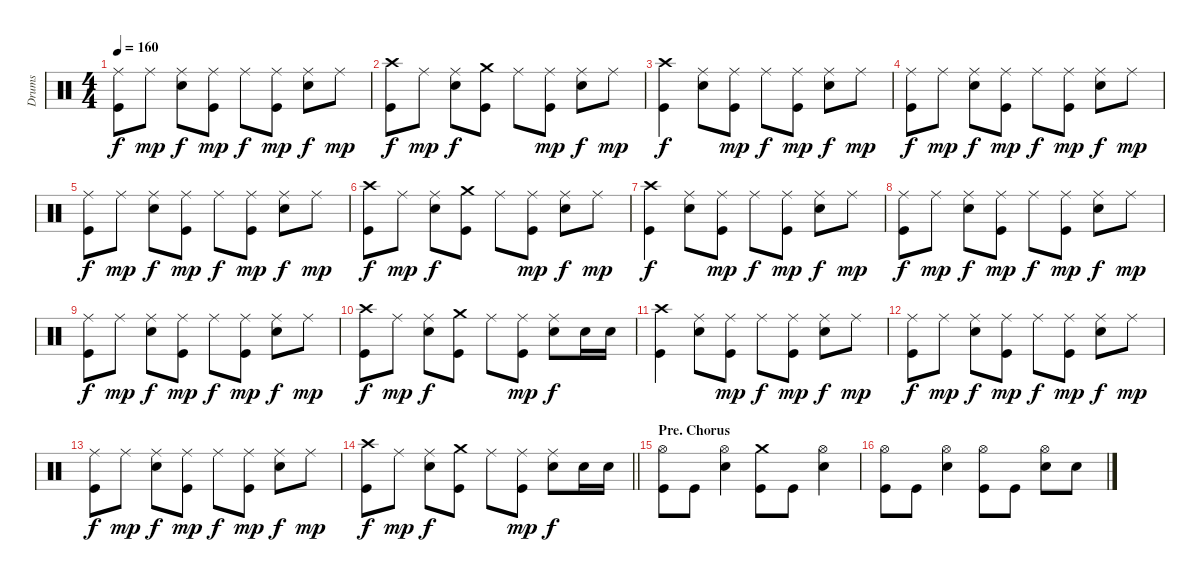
\track ("Drums" "Drums") {instrument percussion}
\staff {score}
\articulation defaults
\ts (4 4)
\tempo 160
\clef neutral
\ks c
("Ride (middle)" "Kick (hit)").8{dy f} "Ride (middle)".8{dy mp} ("Ride (middle)" "Electric Snare (hit)").8{dy f} ("Ride (middle)" "Kick (hit)").8{dy mp} "Ride (middle)".8{dy f} ("Ride (middle)" "Kick (hit)").8{dy mp} ("Ride (middle)" "Electric Snare (hit)").8{dy f} "Ride (middle)".8{dy mp} |
("Crash high (hit)" "Kick (hit)").8{dy f} "Ride (middle)".8{dy mp} ("Ride (middle)" "Electric Snare (hit)").8{dy f} ("Crash medium (hit)" "Kick (hit)").8 "Ride (middle)".8 ("Ride (middle)" "Kick (hit)").8{dy mp} ("Ride (middle)" "Electric Snare (hit)").8{dy f} "Ride (middle)".8{dy mp} |
("Crash high (hit)" "Kick (hit)").4{dy f} ("Ride (middle)" "Electric Snare (hit)").8 ("Ride (middle)" "Kick (hit)").8{dy mp} "Ride (middle)".8{dy f} ("Ride (middle)" "Kick (hit)").8{dy mp} ("Ride (middle)" "Electric Snare (hit)").8{dy f} "Ride (middle)".8{dy mp} |
("Ride (middle)" "Kick (hit)").8{dy f} "Ride (middle)".8{dy mp} ("Ride (middle)" "Electric Snare (hit)").8{dy f} ("Ride (middle)" "Kick (hit)").8{dy mp} "Ride (middle)".8{dy f} ("Ride (middle)" "Kick (hit)").8{dy mp} ("Ride (middle)" "Electric Snare (hit)").8{dy f} "Ride (middle)".8{dy mp} |
("Ride (middle)" "Kick (hit)").8{dy f} "Ride (middle)".8{dy mp} ("Ride (middle)" "Electric Snare (hit)").8{dy f} ("Ride (middle)" "Kick (hit)").8{dy mp} "Ride (middle)".8{dy f} ("Ride (middle)" "Kick (hit)").8{dy mp} ("Ride (middle)" "Electric Snare (hit)").8{dy f} "Ride (middle)".8{dy mp} |
("Crash high (hit)" "Kick (hit)").8{dy f} "Ride (middle)".8{dy mp} ("Ride (middle)" "Electric Snare (hit)").8{dy f} ("Crash medium (hit)" "Kick (hit)").8 "Ride (middle)".8 ("Ride (middle)" "Kick (hit)").8{dy mp} ("Ride (middle)" "Electric Snare (hit)").8{dy f} "Ride (middle)".8{dy mp} |
("Crash high (hit)" "Kick (hit)").4{dy f} ("Ride (middle)" "Electric Snare (hit)").8 ("Ride (middle)" "Kick (hit)").8{dy mp} "Ride (middle)".8{dy f} ("Ride (middle)" "Kick (hit)").8{dy mp} ("Ride (middle)" "Electric Snare (hit)").8{dy f} "Ride (middle)".8{dy mp} |
("Ride (middle)" "Kick (hit)").8{dy f} "Ride (middle)".8{dy mp} ("Ride (middle)" "Electric Snare (hit)").8{dy f} ("Ride (middle)" "Kick (hit)").8{dy mp} "Ride (middle)".8{dy f} ("Ride (middle)" "Kick (hit)").8{dy mp} ("Ride (middle)" "Electric Snare (hit)").8{dy f} "Ride (middle)".8{dy mp} |
("Ride (middle)" "Kick (hit)").8{dy f} "Ride (middle)".8{dy mp} ("Ride (middle)" "Electric Snare (hit)").8{dy f} ("Ride (middle)" "Kick (hit)").8{dy mp} "Ride (middle)".8{dy f} ("Ride (middle)" "Kick (hit)").8{dy mp} ("Ride (middle)" "Electric Snare (hit)").8{dy f} "Ride (middle)".8{dy mp} |
("Crash high (hit)" "Kick (hit)").8{dy f} "Ride (middle)".8{dy mp} ("Ride (middle)" "Electric Snare (hit)").8{dy f} ("Crash medium (hit)" "Kick (hit)").8 "Ride (middle)".8 ("Ride (middle)" "Kick (hit)").8{dy mp} ("Ride (middle)" "Electric Snare (hit)").8{dy f} "Electric Snare (hit)".16 "Electric Snare (hit)".16 |
("Crash high (hit)" "Kick (hit)").4 ("Ride (middle)" "Electric Snare (hit)").8 ("Ride (middle)" "Kick (hit)").8{dy mp} "Ride (middle)".8{dy f} ("Ride (middle)" "Kick (hit)").8{dy mp} ("Ride (middle)" "Electric Snare (hit)").8{dy f} "Ride (middle)".8{dy mp} |
("Ride (middle)" "Kick (hit)").8{dy f} "Ride (middle)".8{dy mp} ("Ride (middle)" "Electric Snare (hit)").8{dy f} ("Ride (middle)" "Kick (hit)").8{dy mp} "Ride (middle)".8{dy f} ("Ride (middle)" "Kick (hit)").8{dy mp} ("Ride (middle)" "Electric Snare (hit)").8{dy f} "Ride (middle)".8{dy mp} |
("Ride (middle)" "Kick (hit)").8{dy f} "Ride (middle)".8{dy mp} ("Ride (middle)" "Electric Snare (hit)").8{dy f} ("Ride (middle)" "Kick (hit)").8{dy mp} "Ride (middle)".8{dy f} ("Ride (middle)" "Kick (hit)").8{dy mp} ("Ride (middle)" "Electric Snare (hit)").8{dy f} "Ride (middle)".8{dy mp} |
\barLineRight lightlight
("Crash high (hit)" "Kick (hit)").8{dy f} "Ride (middle)".8{dy mp} ("Ride (middle)" "Electric Snare (hit)").8{dy f} ("Crash medium (hit)" "Kick (hit)").8 "Ride (middle)".8 ("Ride (middle)" "Kick (hit)").8{dy mp} ("Ride (middle)" "Electric Snare (hit)").8{dy f} "Electric Snare (hit)".16 "Electric Snare (hit)".16 |
\section ("" "Pre. Chorus")
("Hi-Hat (open)" "Kick (hit)").8 "Kick (hit)".8 ("Hi-Hat (open)" "Electric Snare (hit)").4 ("Crash medium (hit)" "Kick (hit)").8 "Kick (hit)".8 ("Hi-Hat (open)" "Electric Snare (hit)").4 |
("Hi-Hat (open)" "Kick (hit)").8 "Kick (hit)".8 ("Hi-Hat (open)" "Electric Snare (hit)").4 ("Hi-Hat (open)" "Kick (hit)").8 "Kick (hit)".8 ("Hi-Hat (open)" "Electric Snare (hit)").8 "Electric Snare (hit)".8
